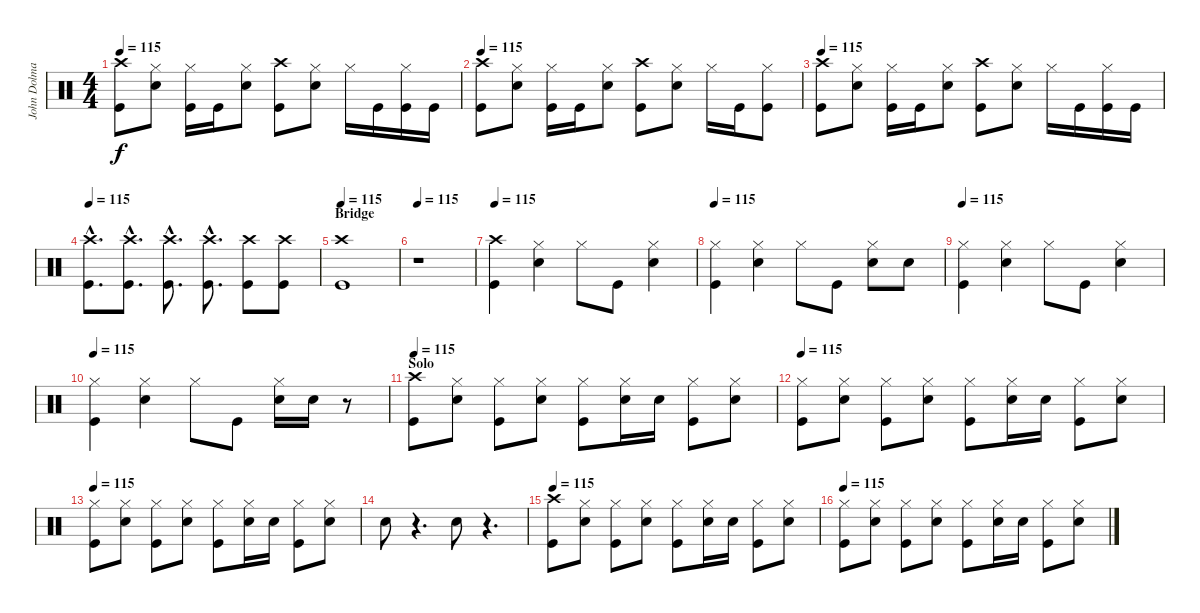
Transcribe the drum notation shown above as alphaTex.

\track ("John Dolmayan " "John Dolma") {instrument percussion}
\staff {score}
\articulation defaults
\ts (4 4)
\tempo 115
\clef neutral
\ks c
("Crash high (hit)" "Kick (hit)").8{dy f} ("Hi-Hat (closed)" "Snare (hit) 2").8 ("Hi-Hat (closed)" "Kick (hit)").16 "Kick (hit)".16 ("Hi-Hat (closed)" "Snare (hit) 2").8 ("Crash high (hit)" "Kick (hit)").8 ("Hi-Hat (closed)" "Snare (hit) 2").8 "Hi-Hat (closed)".16 "Kick (hit)".16 ("Hi-Hat (closed)" "Kick (hit)").16 "Kick (hit)".16 |
\tempo 115
("Crash high (hit)" "Kick (hit)").8 ("Hi-Hat (closed)" "Snare (hit) 2").8 ("Hi-Hat (closed)" "Kick (hit)").16 "Kick (hit)".16 ("Hi-Hat (closed)" "Snare (hit) 2").8 ("Crash high (hit)" "Kick (hit)").8 ("Hi-Hat (closed)" "Snare (hit) 2").8 "Hi-Hat (closed)".16 "Kick (hit)".16 ("Hi-Hat (closed)" "Kick (hit)").8 |
\tempo 115
("Crash high (hit)" "Kick (hit)").8 ("Hi-Hat (closed)" "Snare (hit) 2").8 ("Hi-Hat (closed)" "Kick (hit)").16 "Kick (hit)".16 ("Hi-Hat (closed)" "Snare (hit) 2").8 ("Crash high (hit)" "Kick (hit)").8 ("Hi-Hat (closed)" "Snare (hit) 2").8 "Hi-Hat (closed)".16 "Kick (hit)".16 ("Hi-Hat (closed)" "Kick (hit)").16 "Kick (hit)".16 |
\tempo 115
("Crash high (hit)"{hac} "Kick (hit)"{hac}).8{d} ("Crash high (hit)"{hac} "Kick (hit)"{hac}).8{d} ("Crash high (hit)"{hac} "Kick (hit)"{hac}).8{d} ("Crash high (hit)"{hac} "Kick (hit)"{hac}).8{d} ("Crash high (hit)" "Kick (hit)").8 ("Crash high (hit)" "Kick (hit)").8 |
\section ("" "Bridge")
\tempo 115
("Crash high (hit)" "Kick (hit)").1 |
\tempo 115
r.1 |
\tempo 115
("Crash high (hit)" "Kick (hit)").4 ("Hi-Hat (closed)" "Snare (hit) 2").4 "Hi-Hat (closed)".8 "Kick (hit)".8 ("Hi-Hat (closed)" "Snare (hit) 2").4 |
\tempo 115
("Hi-Hat (closed)" "Kick (hit)").4 ("Hi-Hat (closed)" "Snare (hit) 2").4 "Hi-Hat (closed)".8 "Kick (hit)".8 ("Hi-Hat (closed)" "Snare (hit) 2").8 "Snare (hit) 2".8 |
\tempo 115
("Hi-Hat (closed)" "Kick (hit)").4 ("Hi-Hat (closed)" "Snare (hit) 2").4 "Hi-Hat (closed)".8 "Kick (hit)".8 ("Hi-Hat (closed)" "Snare (hit) 2").4 |
\tempo 115
("Hi-Hat (closed)" "Kick (hit)").4 ("Hi-Hat (closed)" "Snare (hit) 2").4 "Hi-Hat (closed)".8 "Kick (hit)".8 ("Hi-Hat (closed)" "Snare (hit) 2").16 "Snare (hit) 2".16 r.8 |
\section ("" "Solo")
\tempo 115
("Crash high (hit)" "Kick (hit)").8 ("Hi-Hat (closed)" "Snare (hit) 2").8 ("Hi-Hat (closed)" "Kick (hit)").8 ("Hi-Hat (closed)" "Snare (hit) 2").8 ("Hi-Hat (closed)" "Kick (hit)").8 ("Hi-Hat (closed)" "Snare (hit) 2").16 "Snare (hit) 2".16 ("Hi-Hat (closed)" "Kick (hit)").8 ("Hi-Hat (closed)" "Snare (hit) 2").8 |
\tempo 115
("Hi-Hat (closed)" "Kick (hit)").8 ("Hi-Hat (closed)" "Snare (hit) 2").8 ("Hi-Hat (closed)" "Kick (hit)").8 ("Hi-Hat (closed)" "Snare (hit) 2").8 ("Hi-Hat (closed)" "Kick (hit)").8 ("Hi-Hat (closed)" "Snare (hit) 2").16 "Snare (hit) 2".16 ("Hi-Hat (closed)" "Kick (hit)").8 ("Hi-Hat (closed)" "Snare (hit) 2").8 |
\tempo 115
("Hi-Hat (closed)" "Kick (hit)").8 ("Hi-Hat (closed)" "Snare (hit) 2").8 ("Hi-Hat (closed)" "Kick (hit)").8 ("Hi-Hat (closed)" "Snare (hit) 2").8 ("Hi-Hat (closed)" "Kick (hit)").8 ("Hi-Hat (closed)" "Snare (hit) 2").16 "Snare (hit) 2".16 ("Hi-Hat (closed)" "Kick (hit)").8 ("Hi-Hat (closed)" "Snare (hit) 2").8 |
"Snare (hit) 2".8 r.4{d} "Snare (hit) 2".8 r.4{d} |
\tempo 115
("Crash high (hit)" "Kick (hit)").8 ("Hi-Hat (closed)" "Snare (hit) 2").8 ("Hi-Hat (closed)" "Kick (hit)").8 ("Hi-Hat (closed)" "Snare (hit) 2").8 ("Hi-Hat (closed)" "Kick (hit)").8 ("Hi-Hat (closed)" "Snare (hit) 2").16 "Snare (hit) 2".16 ("Hi-Hat (closed)" "Kick (hit)").8 ("Hi-Hat (closed)" "Snare (hit) 2").8 |
\tempo 115
("Hi-Hat (closed)" "Kick (hit)").8 ("Hi-Hat (closed)" "Snare (hit) 2").8 ("Hi-Hat (closed)" "Kick (hit)").8 ("Hi-Hat (closed)" "Snare (hit) 2").8 ("Hi-Hat (closed)" "Kick (hit)").8 ("Hi-Hat (closed)" "Snare (hit) 2").16 "Snare (hit) 2".16 ("Hi-Hat (closed)" "Kick (hit)").8 ("Hi-Hat (closed)" "Snare (hit) 2").8
